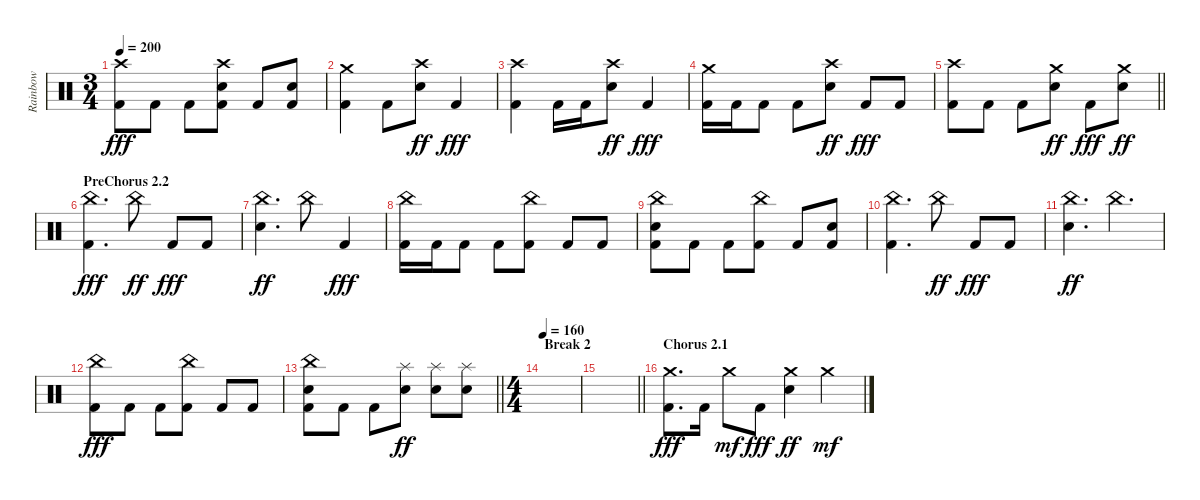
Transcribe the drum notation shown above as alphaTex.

\track ("Rainbow" "Rainbow") {instrument percussion}
\staff {score}
\articulation defaults
\ts (3 4)
\tempo 200
\clef neutral
\ks c
("Crash high (hit)" "Kick (hit) 2").8{dy fff} "Kick (hit) 2".8 "Kick (hit) 2".8 ("Crash high (hit)" "Electric Snare (hit)" "Kick (hit) 2").8 "Kick (hit) 2".8 ("Electric Snare (hit)" "Kick (hit) 2").8 |
("Crash medium (hit)" "Kick (hit) 2").4 "Kick (hit) 2".8 ("Crash high (hit)" "Electric Snare (hit)").8{dy ff} "Kick (hit) 2".4{dy fff} |
("Crash high (hit)" "Kick (hit) 2").4 "Kick (hit) 2".16 "Kick (hit) 2".16 ("Crash high (hit)" "Electric Snare (hit)").8{dy ff} "Kick (hit) 2".4{dy fff} |
("Crash medium (hit)" "Kick (hit) 2").16 "Kick (hit) 2".16 "Kick (hit) 2".8 "Kick (hit) 2".8 ("Crash high (hit)" "Electric Snare (hit)").8{dy ff} "Kick (hit) 2".8{dy fff} "Kick (hit) 2".8 |
\barLineRight lightlight
("Crash high (hit)" "Kick (hit) 2").8 "Kick (hit) 2".8 "Kick (hit) 2".8 ("Crash medium (hit)" "Electric Snare (hit)").8{dy ff} "Kick (hit) 2".8{dy fff} ("Crash medium (hit)" "Electric Snare (hit)").8{dy ff} |
\section ("" "PreChorus 2.2")
("China (hit)" "Kick (hit) 2").4{d dy fff} "China (hit)".8{dy ff} "Kick (hit) 2".8{dy fff} "Kick (hit) 2".8 |
("China (hit)" "Electric Snare (hit)").4{d dy ff} "China (hit)".8 "Kick (hit) 2".4{dy fff} |
("China (hit)" "Kick (hit) 2").16 "Kick (hit) 2".16 "Kick (hit) 2".8 "Kick (hit) 2".8 ("China (hit)" "Kick (hit) 2").8 "Kick (hit) 2".8 "Kick (hit) 2".8 |
("China (hit)" "Electric Snare (hit)" "Kick (hit) 2").8 "Kick (hit) 2".8 "Kick (hit) 2".8 ("China (hit)" "Kick (hit) 2").8 "Kick (hit) 2".8 ("Electric Snare (hit)" "Kick (hit) 2").8 |
("China (hit)" "Kick (hit) 2").4{d} "China (hit)".8{dy ff} "Kick (hit) 2".8{dy fff} "Kick (hit) 2".8 |
("China (hit)" "Electric Snare (hit)").4{d dy ff} "China (hit)".4{d} |
("China (hit)" "Kick (hit) 2").8{dy fff} "Kick (hit) 2".8 "Kick (hit) 2".8 ("China (hit)" "Kick (hit) 2").8 "Kick (hit) 2".8 "Kick (hit) 2".8 |
\barLineRight lightlight
("China (hit)" "Electric Snare (hit)" "Kick (hit) 2").8 "Kick (hit) 2".8 "Kick (hit) 2".8 ("Splash (hit)" "Electric Snare (hit)").8{dy ff} ("Splash (hit)" "Electric Snare (hit)").8 ("Splash (hit)" "Electric Snare (hit)").8 |
\ts (4 4)
\section ("" "Break 2")
\tempo 160
|
\barLineRight lightlight
|
\section ("" "Chorus 2.1")
("Crash medium (hit)" "Kick (hit) 2").8{d dy fff} "Kick (hit) 2".16 "Crash medium (hit)".8{dy mf} "Kick (hit) 2".8{dy fff} ("Crash medium (hit)" "Electric Snare (hit)").4{dy ff} "Crash medium (hit)".4{dy mf}
